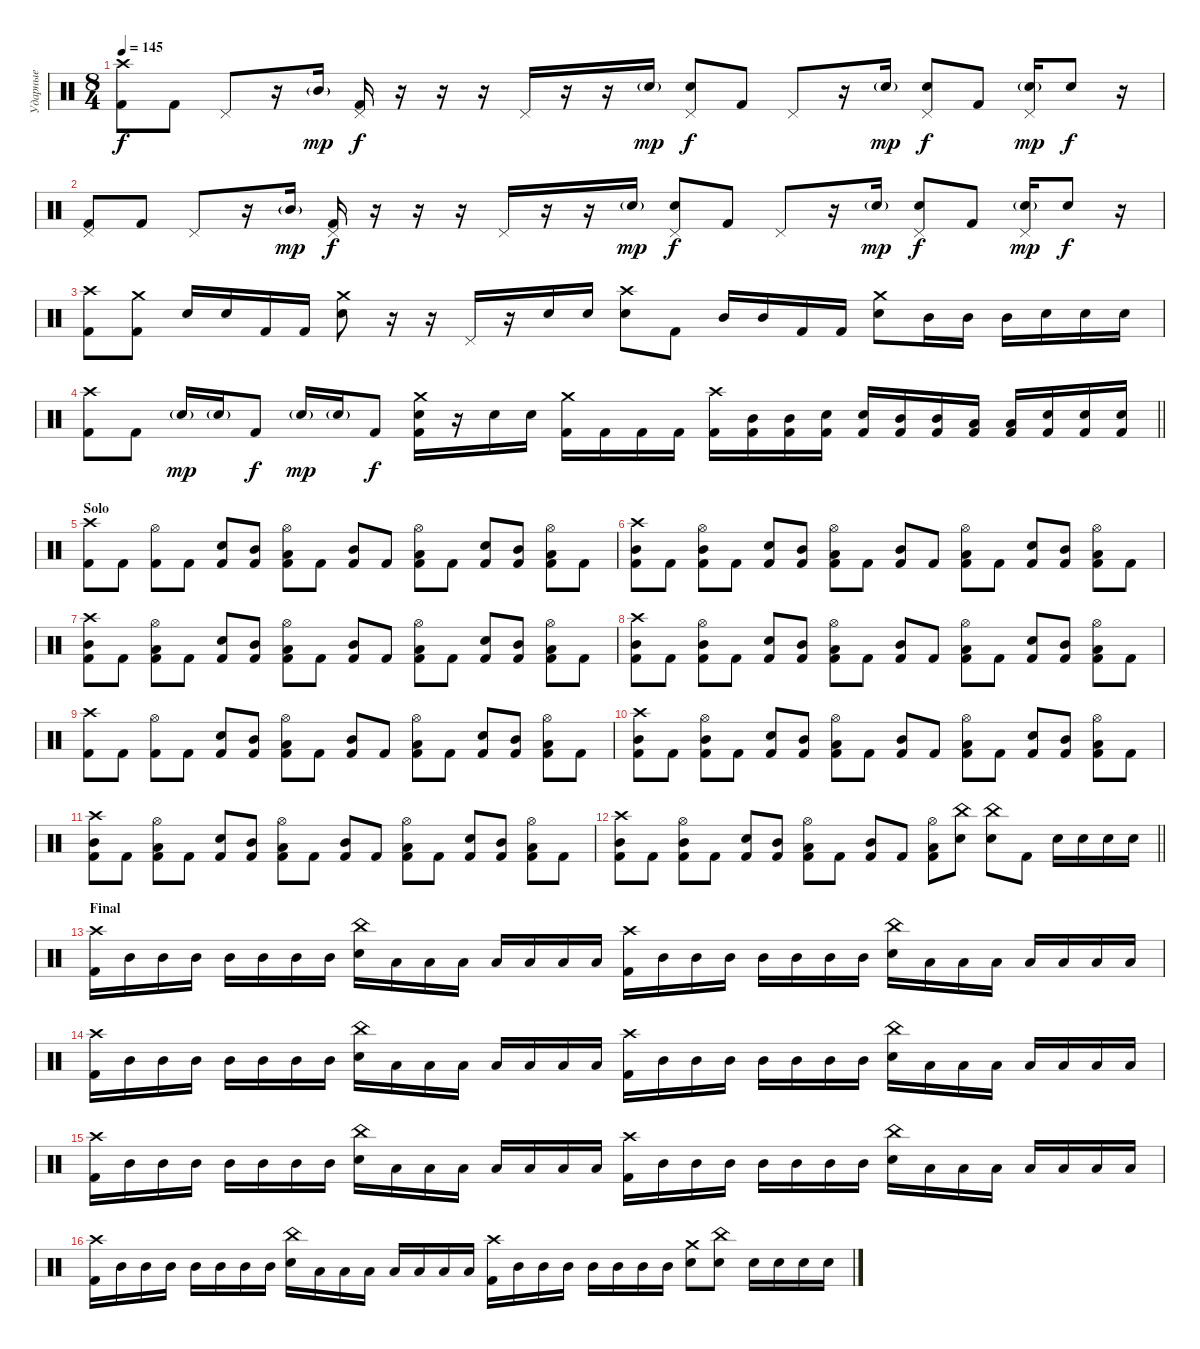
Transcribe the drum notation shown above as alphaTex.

\track ("Ударные" "Ударные") {instrument percussion}
\staff {score}
\articulation defaults
\ts (8 4)
\tempo 145
\clef neutral
\ks c
("Crash high (hit)" "Kick (hit) 2").8{dy f} "Kick (hit) 2".8 "Pedal Hi-Hat (hit)".8 r.16 "Mid Tom (hit)"{g}.16{dy mp} ("Pedal Hi-Hat (hit)" "Kick (hit) 2").16{dy f} r.16 r.16 r.16 "Pedal Hi-Hat (hit)".16 r.16 r.16 "Electric Snare (hit)"{g}.16{dy mp} ("Pedal Hi-Hat (hit)" "Electric Snare (hit)").8{dy f} "Kick (hit) 2".8 "Pedal Hi-Hat (hit)".8 r.16 "Electric Snare (hit)"{g}.16{dy mp} ("Pedal Hi-Hat (hit)" "Electric Snare (hit)").8{dy f} "Kick (hit) 2".8 ("Pedal Hi-Hat (hit)" "Electric Snare (hit)"{g}).16{dy mp} "Electric Snare (hit)".8{dy f} r.16 |
("Pedal Hi-Hat (hit)" "Kick (hit) 2").8 "Kick (hit) 2".8 "Pedal Hi-Hat (hit)".8 r.16 "Mid Tom (hit)"{g}.16{dy mp} ("Pedal Hi-Hat (hit)" "Kick (hit) 2").16{dy f} r.16 r.16 r.16 "Pedal Hi-Hat (hit)".16 r.16 r.16 "Electric Snare (hit)"{g}.16{dy mp} ("Pedal Hi-Hat (hit)" "Electric Snare (hit)").8{dy f} "Kick (hit) 2".8 "Pedal Hi-Hat (hit)".8 r.16 "Electric Snare (hit)"{g}.16{dy mp} ("Pedal Hi-Hat (hit)" "Electric Snare (hit)").8{dy f} "Kick (hit) 2".8 ("Pedal Hi-Hat (hit)" "Electric Snare (hit)"{g}).16{dy mp} "Electric Snare (hit)".8{dy f} r.16 |
("Crash high (hit)" "Kick (hit) 2").8 ("Crash medium (hit)" "Kick (hit) 2").8 "Electric Snare (hit)".16 "Electric Snare (hit)".16 "Kick (hit) 2".16 "Kick (hit) 2".16 ("Crash medium (hit)" "Electric Snare (hit)").8 r.16 r.16 "Pedal Hi-Hat (hit)".16 r.16 "Electric Snare (hit)".16 "Electric Snare (hit)".16 ("Crash high (hit)" "Electric Snare (hit)").8 "Kick (hit) 2".8 "Mid Tom (hit)".16 "Mid Tom (hit)".16 "Kick (hit) 2".16 "Kick (hit) 2".16 ("Crash medium (hit)" "Electric Snare (hit)").8 "Mid Tom (hit)".16 "Mid Tom (hit)".16 "Mid Tom (hit)".16 "Electric Snare (hit)".16 "Electric Snare (hit)".16 "Electric Snare (hit)".16 |
\barLineRight lightlight
("Crash high (hit)" "Kick (hit) 2").8 "Kick (hit) 2".8 "Electric Snare (hit)"{g}.16{dy mp} "Electric Snare (hit)"{g}.16 "Kick (hit) 2".8{dy f} "Electric Snare (hit)"{g}.16{dy mp} "Electric Snare (hit)"{g}.16 "Kick (hit) 2".8{dy f} ("Crash medium (hit)" "Electric Snare (hit)" "Kick (hit) 2").16 r.16 "Electric Snare (hit)".16 "Electric Snare (hit)".16 ("Crash medium (hit)" "Kick (hit) 2").16 "Kick (hit) 2".16 "Kick (hit) 2".16 "Kick (hit) 2".16 ("Crash high (hit)" "Kick (hit) 2").16 ("Mid Tom (hit)" "Kick (hit) 2").16 ("Mid Tom (hit)" "Kick (hit) 2").16 ("Electric Snare (hit)" "Kick (hit) 2").16 ("Electric Snare (hit)" "Kick (hit) 2").16 ("Mid Tom (hit)" "Kick (hit) 2").16 ("Mid Tom (hit)" "Kick (hit) 2").16 ("Low Tom (hit)" "Kick (hit) 2").16 ("Low Tom (hit)" "Kick (hit) 2").16 ("Electric Snare (hit)" "Kick (hit) 2").16 ("Electric Snare (hit)" "Kick (hit) 2").16 ("Electric Snare (hit)" "Kick (hit) 2").16 |
\section ("" "Solo")
("Crash high (hit)" "Kick (hit) 2").8 "Kick (hit) 2".8 ("Hi-Hat (open)" "Kick (hit) 2").8 "Kick (hit) 2".8 ("Electric Snare (hit)" "Kick (hit) 2").8 ("Mid Tom (hit)" "Kick (hit) 2").8 ("Hi-Hat (open)" "Low Tom (hit)" "Kick (hit) 2").8 "Kick (hit) 2".8 ("Mid Tom (hit)" "Kick (hit) 2").8 "Kick (hit) 2".8 ("Hi-Hat (open)" "Low Tom (hit)" "Kick (hit) 2").8 "Kick (hit) 2".8 ("Electric Snare (hit)" "Kick (hit) 2").8 ("Mid Tom (hit)" "Kick (hit) 2").8 ("Hi-Hat (open)" "Low Tom (hit)" "Kick (hit) 2").8 "Kick (hit) 2".8 |
("Crash high (hit)" "Mid Tom (hit)" "Kick (hit) 2").8 "Kick (hit) 2".8 ("Hi-Hat (open)" "Mid Tom (hit)" "Kick (hit) 2").8 "Kick (hit) 2".8 ("Electric Snare (hit)" "Kick (hit) 2").8 ("Mid Tom (hit)" "Kick (hit) 2").8 ("Hi-Hat (open)" "Low Tom (hit)" "Kick (hit) 2").8 "Kick (hit) 2".8 ("Mid Tom (hit)" "Kick (hit) 2").8 "Kick (hit) 2".8 ("Hi-Hat (open)" "Low Tom (hit)" "Kick (hit) 2").8 "Kick (hit) 2".8 ("Electric Snare (hit)" "Kick (hit) 2").8 ("Mid Tom (hit)" "Kick (hit) 2").8 ("Hi-Hat (open)" "Low Tom (hit)" "Kick (hit) 2").8 "Kick (hit) 2".8 |
("Crash high (hit)" "Mid Tom (hit)" "Kick (hit) 2").8 "Kick (hit) 2".8 ("Hi-Hat (open)" "Low Tom (hit)" "Kick (hit) 2").8 "Kick (hit) 2".8 ("Electric Snare (hit)" "Kick (hit) 2").8 ("Mid Tom (hit)" "Kick (hit) 2").8 ("Hi-Hat (open)" "Low Tom (hit)" "Kick (hit) 2").8 "Kick (hit) 2".8 ("Mid Tom (hit)" "Kick (hit) 2").8 "Kick (hit) 2".8 ("Hi-Hat (open)" "Low Tom (hit)" "Kick (hit) 2").8 "Kick (hit) 2".8 ("Electric Snare (hit)" "Kick (hit) 2").8 ("Mid Tom (hit)" "Kick (hit) 2").8 ("Hi-Hat (open)" "Low Tom (hit)" "Kick (hit) 2").8 "Kick (hit) 2".8 |
("Crash high (hit)" "Mid Tom (hit)" "Kick (hit) 2").8 "Kick (hit) 2".8 ("Hi-Hat (open)" "Mid Tom (hit)" "Kick (hit) 2").8 "Kick (hit) 2".8 ("Electric Snare (hit)" "Kick (hit) 2").8 ("Mid Tom (hit)" "Kick (hit) 2").8 ("Hi-Hat (open)" "Low Tom (hit)" "Kick (hit) 2").8 "Kick (hit) 2".8 ("Mid Tom (hit)" "Kick (hit) 2").8 "Kick (hit) 2".8 ("Hi-Hat (open)" "Low Tom (hit)" "Kick (hit) 2").8 "Kick (hit) 2".8 ("Electric Snare (hit)" "Kick (hit) 2").8 ("Mid Tom (hit)" "Kick (hit) 2").8 ("Hi-Hat (open)" "Low Tom (hit)" "Kick (hit) 2").8 "Kick (hit) 2".8 |
("Crash high (hit)" "Kick (hit) 2").8 "Kick (hit) 2".8 ("Hi-Hat (open)" "Kick (hit) 2").8 "Kick (hit) 2".8 ("Electric Snare (hit)" "Kick (hit) 2").8 ("Mid Tom (hit)" "Kick (hit) 2").8 ("Hi-Hat (open)" "Low Tom (hit)" "Kick (hit) 2").8 "Kick (hit) 2".8 ("Mid Tom (hit)" "Kick (hit) 2").8 "Kick (hit) 2".8 ("Hi-Hat (open)" "Low Tom (hit)" "Kick (hit) 2").8 "Kick (hit) 2".8 ("Electric Snare (hit)" "Kick (hit) 2").8 ("Mid Tom (hit)" "Kick (hit) 2").8 ("Hi-Hat (open)" "Low Tom (hit)" "Kick (hit) 2").8 "Kick (hit) 2".8 |
("Crash high (hit)" "Mid Tom (hit)" "Kick (hit) 2").8 "Kick (hit) 2".8 ("Hi-Hat (open)" "Mid Tom (hit)" "Kick (hit) 2").8 "Kick (hit) 2".8 ("Electric Snare (hit)" "Kick (hit) 2").8 ("Mid Tom (hit)" "Kick (hit) 2").8 ("Hi-Hat (open)" "Low Tom (hit)" "Kick (hit) 2").8 "Kick (hit) 2".8 ("Mid Tom (hit)" "Kick (hit) 2").8 "Kick (hit) 2".8 ("Hi-Hat (open)" "Low Tom (hit)" "Kick (hit) 2").8 "Kick (hit) 2".8 ("Electric Snare (hit)" "Kick (hit) 2").8 ("Mid Tom (hit)" "Kick (hit) 2").8 ("Hi-Hat (open)" "Low Tom (hit)" "Kick (hit) 2").8 "Kick (hit) 2".8 |
("Crash high (hit)" "Mid Tom (hit)" "Kick (hit) 2").8 "Kick (hit) 2".8 ("Hi-Hat (open)" "Low Tom (hit)" "Kick (hit) 2").8 "Kick (hit) 2".8 ("Electric Snare (hit)" "Kick (hit) 2").8 ("Mid Tom (hit)" "Kick (hit) 2").8 ("Hi-Hat (open)" "Low Tom (hit)" "Kick (hit) 2").8 "Kick (hit) 2".8 ("Mid Tom (hit)" "Kick (hit) 2").8 "Kick (hit) 2".8 ("Hi-Hat (open)" "Low Tom (hit)" "Kick (hit) 2").8 "Kick (hit) 2".8 ("Electric Snare (hit)" "Kick (hit) 2").8 ("Mid Tom (hit)" "Kick (hit) 2").8 ("Hi-Hat (open)" "Low Tom (hit)" "Kick (hit) 2").8 "Kick (hit) 2".8 |
\barLineRight lightlight
("Crash high (hit)" "Mid Tom (hit)" "Kick (hit) 2").8 "Kick (hit) 2".8 ("Hi-Hat (open)" "Mid Tom (hit)" "Kick (hit) 2").8 "Kick (hit) 2".8 ("Electric Snare (hit)" "Kick (hit) 2").8 ("Mid Tom (hit)" "Kick (hit) 2").8 ("Hi-Hat (open)" "Low Tom (hit)" "Kick (hit) 2").8 "Kick (hit) 2".8 ("Mid Tom (hit)" "Kick (hit) 2").8 "Kick (hit) 2".8 ("Hi-Hat (open)" "Low Tom (hit)" "Kick (hit) 2").8 ("China (hit)" "Electric Snare (hit)").8 ("China (hit)" "Electric Snare (hit)").8 "Kick (hit) 2".8 "Electric Snare (hit)".16 "Electric Snare (hit)".16 "Electric Snare (hit)".16 "Electric Snare (hit)".16 |
\section ("" "Final")
("Crash high (hit)" "Kick (hit) 2").16 "Mid Tom (hit)".16 "Mid Tom (hit)".16 "Mid Tom (hit)".16 "Mid Tom (hit)".16 "Mid Tom (hit)".16 "Mid Tom (hit)".16 "Mid Tom (hit)".16 ("China (hit)" "Electric Snare (hit)").16 "Low Tom (hit)".16 "Low Tom (hit)".16 "Low Tom (hit)".16 "Low Tom (hit)".16 "Low Tom (hit)".16 "Low Tom (hit)".16 "Low Tom (hit)".16 ("Crash high (hit)" "Kick (hit) 2").16 "Mid Tom (hit)".16 "Mid Tom (hit)".16 "Mid Tom (hit)".16 "Mid Tom (hit)".16 "Mid Tom (hit)".16 "Mid Tom (hit)".16 "Mid Tom (hit)".16 ("China (hit)" "Electric Snare (hit)").16 "Low Tom (hit)".16 "Low Tom (hit)".16 "Low Tom (hit)".16 "Low Tom (hit)".16 "Low Tom (hit)".16 "Low Tom (hit)".16 "Low Tom (hit)".16 |
("Crash high (hit)" "Kick (hit) 2").16 "Mid Tom (hit)".16 "Mid Tom (hit)".16 "Mid Tom (hit)".16 "Mid Tom (hit)".16 "Mid Tom (hit)".16 "Mid Tom (hit)".16 "Mid Tom (hit)".16 ("China (hit)" "Electric Snare (hit)").16 "Low Tom (hit)".16 "Low Tom (hit)".16 "Low Tom (hit)".16 "Low Tom (hit)".16 "Low Tom (hit)".16 "Low Tom (hit)".16 "Low Tom (hit)".16 ("Crash high (hit)" "Kick (hit) 2").16 "Mid Tom (hit)".16 "Mid Tom (hit)".16 "Mid Tom (hit)".16 "Mid Tom (hit)".16 "Mid Tom (hit)".16 "Mid Tom (hit)".16 "Mid Tom (hit)".16 ("China (hit)" "Electric Snare (hit)").16 "Low Tom (hit)".16 "Low Tom (hit)".16 "Low Tom (hit)".16 "Low Tom (hit)".16 "Low Tom (hit)".16 "Low Tom (hit)".16 "Low Tom (hit)".16 |
("Crash high (hit)" "Kick (hit) 2").16 "Mid Tom (hit)".16 "Mid Tom (hit)".16 "Mid Tom (hit)".16 "Mid Tom (hit)".16 "Mid Tom (hit)".16 "Mid Tom (hit)".16 "Mid Tom (hit)".16 ("China (hit)" "Electric Snare (hit)").16 "Low Tom (hit)".16 "Low Tom (hit)".16 "Low Tom (hit)".16 "Low Tom (hit)".16 "Low Tom (hit)".16 "Low Tom (hit)".16 "Low Tom (hit)".16 ("Crash high (hit)" "Kick (hit) 2").16 "Mid Tom (hit)".16 "Mid Tom (hit)".16 "Mid Tom (hit)".16 "Mid Tom (hit)".16 "Mid Tom (hit)".16 "Mid Tom (hit)".16 "Mid Tom (hit)".16 ("China (hit)" "Electric Snare (hit)").16 "Low Tom (hit)".16 "Low Tom (hit)".16 "Low Tom (hit)".16 "Low Tom (hit)".16 "Low Tom (hit)".16 "Low Tom (hit)".16 "Low Tom (hit)".16 |
("Crash high (hit)" "Kick (hit) 2").16 "Mid Tom (hit)".16 "Mid Tom (hit)".16 "Mid Tom (hit)".16 "Mid Tom (hit)".16 "Mid Tom (hit)".16 "Mid Tom (hit)".16 "Mid Tom (hit)".16 ("China (hit)" "Electric Snare (hit)").16 "Low Tom (hit)".16 "Low Tom (hit)".16 "Low Tom (hit)".16 "Low Tom (hit)".16 "Low Tom (hit)".16 "Low Tom (hit)".16 "Low Tom (hit)".16 ("Crash high (hit)" "Kick (hit) 2").16 "Mid Tom (hit)".16 "Mid Tom (hit)".16 "Mid Tom (hit)".16 "Mid Tom (hit)".16 "Mid Tom (hit)".16 "Mid Tom (hit)".16 "Mid Tom (hit)".16 ("Crash medium (hit)" "Electric Snare (hit)").8 ("China (hit)" "Electric Snare (hit)").8 "Electric Snare (hit)".16 "Electric Snare (hit)".16 "Electric Snare (hit)".16 "Electric Snare (hit)".16
